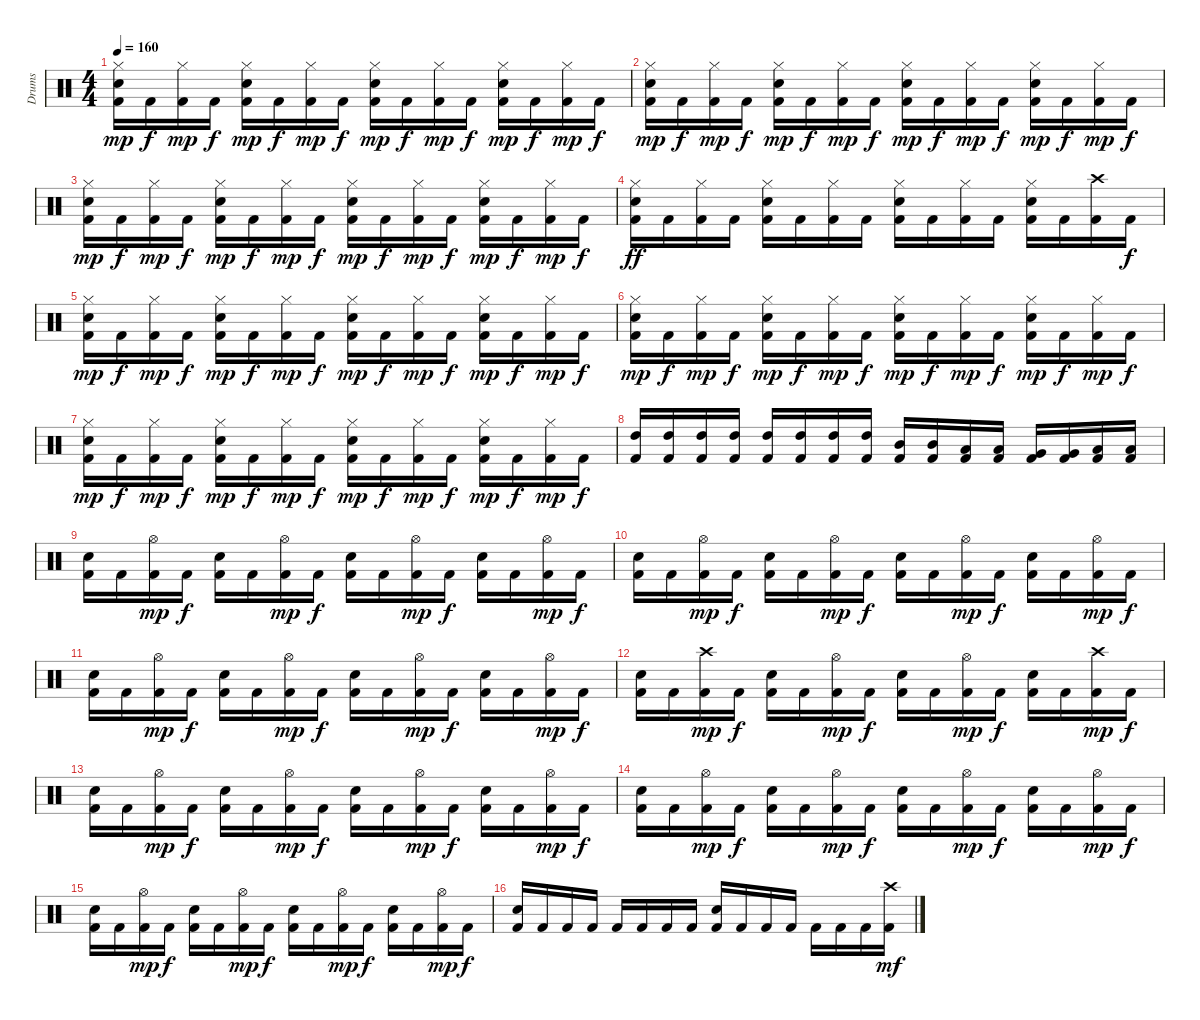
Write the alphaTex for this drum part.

\track ("Drums" "Drums") {instrument percussion}
\staff {score}
\articulation defaults
\ts (4 4)
\tempo 160
\clef neutral
\ks c
("Hi-Hat (closed)" "Electric Snare (hit)" "Kick (hit) 2").16{dy mp} "Kick (hit) 2".16{dy f} ("Hi-Hat (closed)" "Kick (hit) 2").16{dy mp} "Kick (hit) 2".16{dy f} ("Hi-Hat (closed)" "Electric Snare (hit)" "Kick (hit) 2").16{dy mp} "Kick (hit) 2".16{dy f} ("Hi-Hat (closed)" "Kick (hit) 2").16{dy mp} "Kick (hit) 2".16{dy f} ("Hi-Hat (closed)" "Electric Snare (hit)" "Kick (hit) 2").16{dy mp} "Kick (hit) 2".16{dy f} ("Hi-Hat (closed)" "Kick (hit) 2").16{dy mp} "Kick (hit) 2".16{dy f} ("Hi-Hat (closed)" "Electric Snare (hit)" "Kick (hit) 2").16{dy mp} "Kick (hit) 2".16{dy f} ("Hi-Hat (closed)" "Kick (hit) 2").16{dy mp} "Kick (hit) 2".16{dy f} |
("Hi-Hat (closed)" "Electric Snare (hit)" "Kick (hit) 2").16{dy mp} "Kick (hit) 2".16{dy f} ("Hi-Hat (closed)" "Kick (hit) 2").16{dy mp} "Kick (hit) 2".16{dy f} ("Hi-Hat (closed)" "Electric Snare (hit)" "Kick (hit) 2").16{dy mp} "Kick (hit) 2".16{dy f} ("Hi-Hat (closed)" "Kick (hit) 2").16{dy mp} "Kick (hit) 2".16{dy f} ("Hi-Hat (closed)" "Electric Snare (hit)" "Kick (hit) 2").16{dy mp} "Kick (hit) 2".16{dy f} ("Hi-Hat (closed)" "Kick (hit) 2").16{dy mp} "Kick (hit) 2".16{dy f} ("Hi-Hat (closed)" "Electric Snare (hit)" "Kick (hit) 2").16{dy mp} "Kick (hit) 2".16{dy f} ("Hi-Hat (closed)" "Kick (hit) 2").16{dy mp} "Kick (hit) 2".16{dy f} |
("Hi-Hat (closed)" "Electric Snare (hit)" "Kick (hit) 2").16{dy mp} "Kick (hit) 2".16{dy f} ("Hi-Hat (closed)" "Kick (hit) 2").16{dy mp} "Kick (hit) 2".16{dy f} ("Hi-Hat (closed)" "Electric Snare (hit)" "Kick (hit) 2").16{dy mp} "Kick (hit) 2".16{dy f} ("Hi-Hat (closed)" "Kick (hit) 2").16{dy mp} "Kick (hit) 2".16{dy f} ("Hi-Hat (closed)" "Electric Snare (hit)" "Kick (hit) 2").16{dy mp} "Kick (hit) 2".16{dy f} ("Hi-Hat (closed)" "Kick (hit) 2").16{dy mp} "Kick (hit) 2".16{dy f} ("Hi-Hat (closed)" "Electric Snare (hit)" "Kick (hit) 2").16{dy mp} "Kick (hit) 2".16{dy f} ("Hi-Hat (closed)" "Kick (hit) 2").16{dy mp} "Kick (hit) 2".16{dy f} |
("Hi-Hat (closed)" "Electric Snare (hit)" "Kick (hit) 2").16{dy ff} "Kick (hit) 2".16 ("Hi-Hat (closed)" "Kick (hit) 2").16 "Kick (hit) 2".16 ("Hi-Hat (closed)" "Electric Snare (hit)" "Kick (hit) 2").16 "Kick (hit) 2".16 ("Hi-Hat (closed)" "Kick (hit) 2").16 "Kick (hit) 2".16 ("Hi-Hat (closed)" "Electric Snare (hit)" "Kick (hit) 2").16 "Kick (hit) 2".16 ("Hi-Hat (closed)" "Kick (hit) 2").16 "Kick (hit) 2".16 ("Hi-Hat (closed)" "Electric Snare (hit)" "Kick (hit) 2").16 "Kick (hit) 2".16 ("Crash high (hit)" "Kick (hit) 2").16 "Kick (hit) 2".16{dy f} |
("Hi-Hat (closed)" "Electric Snare (hit)" "Kick (hit) 2").16{dy mp} "Kick (hit) 2".16{dy f} ("Hi-Hat (closed)" "Kick (hit) 2").16{dy mp} "Kick (hit) 2".16{dy f} ("Hi-Hat (closed)" "Electric Snare (hit)" "Kick (hit) 2").16{dy mp} "Kick (hit) 2".16{dy f} ("Hi-Hat (closed)" "Kick (hit) 2").16{dy mp} "Kick (hit) 2".16{dy f} ("Hi-Hat (closed)" "Electric Snare (hit)" "Kick (hit) 2").16{dy mp} "Kick (hit) 2".16{dy f} ("Hi-Hat (closed)" "Kick (hit) 2").16{dy mp} "Kick (hit) 2".16{dy f} ("Hi-Hat (closed)" "Electric Snare (hit)" "Kick (hit) 2").16{dy mp} "Kick (hit) 2".16{dy f} ("Hi-Hat (closed)" "Kick (hit) 2").16{dy mp} "Kick (hit) 2".16{dy f} |
("Hi-Hat (closed)" "Electric Snare (hit)" "Kick (hit) 2").16{dy mp} "Kick (hit) 2".16{dy f} ("Hi-Hat (closed)" "Kick (hit) 2").16{dy mp} "Kick (hit) 2".16{dy f} ("Hi-Hat (closed)" "Electric Snare (hit)" "Kick (hit) 2").16{dy mp} "Kick (hit) 2".16{dy f} ("Hi-Hat (closed)" "Kick (hit) 2").16{dy mp} "Kick (hit) 2".16{dy f} ("Hi-Hat (closed)" "Electric Snare (hit)" "Kick (hit) 2").16{dy mp} "Kick (hit) 2".16{dy f} ("Hi-Hat (closed)" "Kick (hit) 2").16{dy mp} "Kick (hit) 2".16{dy f} ("Hi-Hat (closed)" "Electric Snare (hit)" "Kick (hit) 2").16{dy mp} "Kick (hit) 2".16{dy f} ("Hi-Hat (closed)" "Kick (hit) 2").16{dy mp} "Kick (hit) 2".16{dy f} |
("Hi-Hat (closed)" "Electric Snare (hit)" "Kick (hit) 2").16{dy mp} "Kick (hit) 2".16{dy f} ("Hi-Hat (closed)" "Kick (hit) 2").16{dy mp} "Kick (hit) 2".16{dy f} ("Hi-Hat (closed)" "Electric Snare (hit)" "Kick (hit) 2").16{dy mp} "Kick (hit) 2".16{dy f} ("Hi-Hat (closed)" "Kick (hit) 2").16{dy mp} "Kick (hit) 2".16{dy f} ("Hi-Hat (closed)" "Electric Snare (hit)" "Kick (hit) 2").16{dy mp} "Kick (hit) 2".16{dy f} ("Hi-Hat (closed)" "Kick (hit) 2").16{dy mp} "Kick (hit) 2".16{dy f} ("Hi-Hat (closed)" "Electric Snare (hit)" "Kick (hit) 2").16{dy mp} "Kick (hit) 2".16{dy f} ("Hi-Hat (closed)" "Kick (hit) 2").16{dy mp} "Kick (hit) 2".16{dy f} |
("High Tom (hit)" "Kick (hit) 2").16 ("High Tom (hit)" "Kick (hit) 2").16 ("High Tom (hit)" "Kick (hit) 2").16 ("High Tom (hit)" "Kick (hit) 2").16 ("High Tom (hit)" "Kick (hit) 2").16 ("High Tom (hit)" "Kick (hit) 2").16 ("High Tom (hit)" "Kick (hit) 2").16 ("High Tom (hit)" "Kick (hit) 2").16 ("Mid Tom (hit)" "Kick (hit) 2").16 ("Mid Tom (hit)" "Kick (hit) 2").16 ("Low Tom (hit)" "Kick (hit) 2").16 ("Low Tom (hit)" "Kick (hit) 2").16 ("Very Low Tom (hit)" "Kick (hit) 2").16 ("Very Low Tom (hit)" "Kick (hit) 2").16 ("Low Floor Tom (hit)" "Kick (hit) 2").16 ("Low Floor Tom (hit)" "Kick (hit) 2").16 |
("Electric Snare (hit)" "Kick (hit) 2").16 "Kick (hit) 2".16 ("Hi-Hat (open)" "Kick (hit) 2").16{dy mp} "Kick (hit) 2".16{dy f} ("Electric Snare (hit)" "Kick (hit) 2").16 "Kick (hit) 2".16 ("Hi-Hat (open)" "Kick (hit) 2").16{dy mp} "Kick (hit) 2".16{dy f} ("Electric Snare (hit)" "Kick (hit) 2").16 "Kick (hit) 2".16 ("Hi-Hat (open)" "Kick (hit) 2").16{dy mp} "Kick (hit) 2".16{dy f} ("Electric Snare (hit)" "Kick (hit) 2").16 "Kick (hit) 2".16 ("Hi-Hat (open)" "Kick (hit) 2").16{dy mp} "Kick (hit) 2".16{dy f} |
("Electric Snare (hit)" "Kick (hit) 2").16 "Kick (hit) 2".16 ("Hi-Hat (open)" "Kick (hit) 2").16{dy mp} "Kick (hit) 2".16{dy f} ("Electric Snare (hit)" "Kick (hit) 2").16 "Kick (hit) 2".16 ("Hi-Hat (open)" "Kick (hit) 2").16{dy mp} "Kick (hit) 2".16{dy f} ("Electric Snare (hit)" "Kick (hit) 2").16 "Kick (hit) 2".16 ("Hi-Hat (open)" "Kick (hit) 2").16{dy mp} "Kick (hit) 2".16{dy f} ("Electric Snare (hit)" "Kick (hit) 2").16 "Kick (hit) 2".16 ("Hi-Hat (open)" "Kick (hit) 2").16{dy mp} "Kick (hit) 2".16{dy f} |
("Electric Snare (hit)" "Kick (hit) 2").16 "Kick (hit) 2".16 ("Hi-Hat (open)" "Kick (hit) 2").16{dy mp} "Kick (hit) 2".16{dy f} ("Electric Snare (hit)" "Kick (hit) 2").16 "Kick (hit) 2".16 ("Hi-Hat (open)" "Kick (hit) 2").16{dy mp} "Kick (hit) 2".16{dy f} ("Electric Snare (hit)" "Kick (hit) 2").16 "Kick (hit) 2".16 ("Hi-Hat (open)" "Kick (hit) 2").16{dy mp} "Kick (hit) 2".16{dy f} ("Electric Snare (hit)" "Kick (hit) 2").16 "Kick (hit) 2".16 ("Hi-Hat (open)" "Kick (hit) 2").16{dy mp} "Kick (hit) 2".16{dy f} |
("Electric Snare (hit)" "Kick (hit) 2").16 "Kick (hit) 2".16 ("Crash high (hit)" "Kick (hit) 2").16{dy mp} "Kick (hit) 2".16{dy f} ("Electric Snare (hit)" "Kick (hit) 2").16 "Kick (hit) 2".16 ("Hi-Hat (open)" "Kick (hit) 2").16{dy mp} "Kick (hit) 2".16{dy f} ("Electric Snare (hit)" "Kick (hit) 2").16 "Kick (hit) 2".16 ("Hi-Hat (open)" "Kick (hit) 2").16{dy mp} "Kick (hit) 2".16{dy f} ("Electric Snare (hit)" "Kick (hit) 2").16 "Kick (hit) 2".16 ("Crash high (hit)" "Kick (hit) 2").16{dy mp} "Kick (hit) 2".16{dy f} |
("Electric Snare (hit)" "Kick (hit) 2").16 "Kick (hit) 2".16 ("Hi-Hat (open)" "Kick (hit) 2").16{dy mp} "Kick (hit) 2".16{dy f} ("Electric Snare (hit)" "Kick (hit) 2").16 "Kick (hit) 2".16 ("Hi-Hat (open)" "Kick (hit) 2").16{dy mp} "Kick (hit) 2".16{dy f} ("Electric Snare (hit)" "Kick (hit) 2").16 "Kick (hit) 2".16 ("Hi-Hat (open)" "Kick (hit) 2").16{dy mp} "Kick (hit) 2".16{dy f} ("Electric Snare (hit)" "Kick (hit) 2").16 "Kick (hit) 2".16 ("Hi-Hat (open)" "Kick (hit) 2").16{dy mp} "Kick (hit) 2".16{dy f} |
("Electric Snare (hit)" "Kick (hit) 2").16 "Kick (hit) 2".16 ("Hi-Hat (open)" "Kick (hit) 2").16{dy mp} "Kick (hit) 2".16{dy f} ("Electric Snare (hit)" "Kick (hit) 2").16 "Kick (hit) 2".16 ("Hi-Hat (open)" "Kick (hit) 2").16{dy mp} "Kick (hit) 2".16{dy f} ("Electric Snare (hit)" "Kick (hit) 2").16 "Kick (hit) 2".16 ("Hi-Hat (open)" "Kick (hit) 2").16{dy mp} "Kick (hit) 2".16{dy f} ("Electric Snare (hit)" "Kick (hit) 2").16 "Kick (hit) 2".16 ("Hi-Hat (open)" "Kick (hit) 2").16{dy mp} "Kick (hit) 2".16{dy f} |
("Electric Snare (hit)" "Kick (hit) 2").16 "Kick (hit) 2".16 ("Hi-Hat (open)" "Kick (hit) 2").16{dy mp} "Kick (hit) 2".16{dy f} ("Electric Snare (hit)" "Kick (hit) 2").16 "Kick (hit) 2".16 ("Hi-Hat (open)" "Kick (hit) 2").16{dy mp} "Kick (hit) 2".16{dy f} ("Electric Snare (hit)" "Kick (hit) 2").16 "Kick (hit) 2".16 ("Hi-Hat (open)" "Kick (hit) 2").16{dy mp} "Kick (hit) 2".16{dy f} ("Electric Snare (hit)" "Kick (hit) 2").16 "Kick (hit) 2".16 ("Hi-Hat (open)" "Kick (hit) 2").16{dy mp} "Kick (hit) 2".16{dy f} |
("Electric Snare (hit)" "Kick (hit) 2").16 "Kick (hit) 2".16 "Kick (hit) 2".16 "Kick (hit) 2".16 "Kick (hit) 2".16 "Kick (hit) 2".16 "Kick (hit) 2".16 "Kick (hit) 2".16 ("Electric Snare (hit)" "Kick (hit) 2").16 "Kick (hit) 2".16 "Kick (hit) 2".16 "Kick (hit) 2".16 "Kick (hit) 2".16 "Kick (hit) 2".16 "Kick (hit) 2".16 ("Crash high (hit)" "Kick (hit) 2").16{dy mf}
